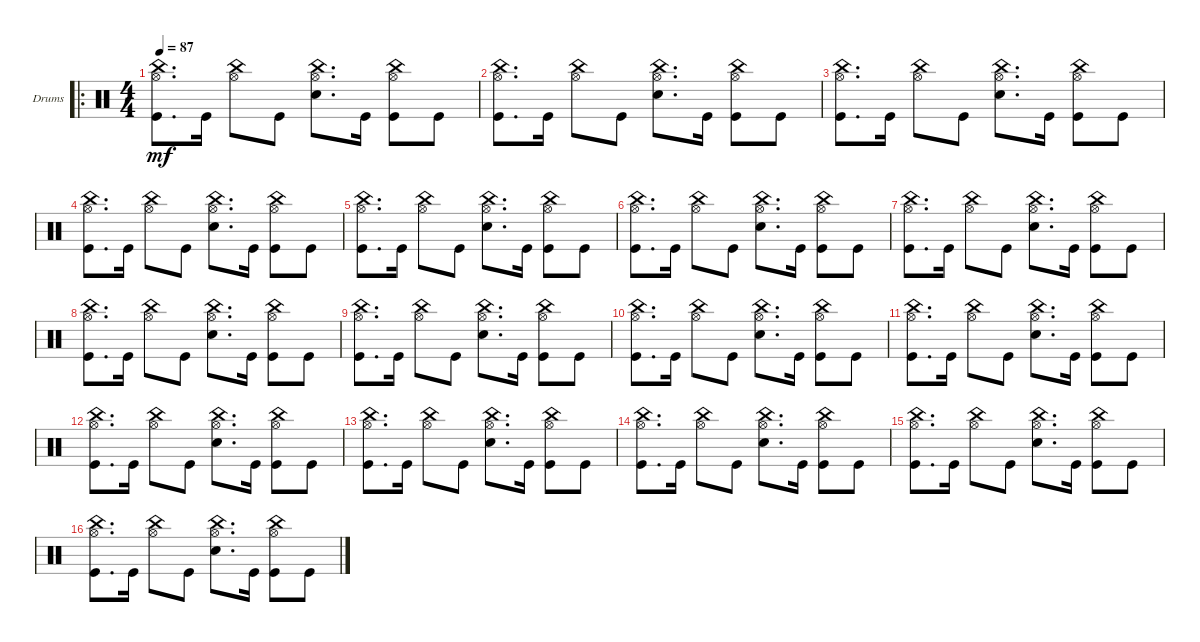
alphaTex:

\defaultSystemsLayout 4
\bracketExtendMode groupsimilarinstruments
\firstSystemTrackNameOrientation horizontal
\otherSystemsTrackNameOrientation horizontal
\track ("Drumkit" "Drums") {instrument percussion}
\staff {score}
\articulation defaults
\ro
\ts (4 4)
\tempo 87
\clef neutral
\scale
0.5
\ks c
("Kick (hit)" "China (hit)" "Hi-Hat (open)").8{d dy mf} "Kick (hit)".16 ("China (hit)" "Hi-Hat (open)").8 "Kick (hit)".8 ("Snare (hit) 2" "China (hit)" "Hi-Hat (open)").8{d} "Kick (hit)".16 ("Kick (hit)" "China (hit)" "Hi-Hat (open)").8 "Kick (hit)".8 |
\scale
0.25 ("Kick (hit)" "China (hit)" "Hi-Hat (open)").8{d} "Kick (hit)".16 ("China (hit)" "Hi-Hat (open)").8 "Kick (hit)".8 ("Snare (hit) 2" "China (hit)" "Hi-Hat (open)").8{d} "Kick (hit)".16 ("Kick (hit)" "China (hit)" "Hi-Hat (open)").8 "Kick (hit)".8 |
\scale
0.25 ("Kick (hit)" "China (hit)" "Hi-Hat (open)").8{d} "Kick (hit)".16 ("China (hit)" "Hi-Hat (open)").8 "Kick (hit)".8 ("Snare (hit) 2" "China (hit)" "Hi-Hat (open)").8{d} "Kick (hit)".16 ("Kick (hit)" "China (hit)" "Hi-Hat (open)").8 "Kick (hit)".8 |
("Kick (hit)" "China (hit)" "Hi-Hat (open)").8{d} "Kick (hit)".16 ("China (hit)" "Hi-Hat (open)").8 "Kick (hit)".8 ("Snare (hit) 2" "China (hit)" "Hi-Hat (open)").8{d} "Kick (hit)".16 ("Kick (hit)" "China (hit)" "Hi-Hat (open)").8 "Kick (hit)".8 |
("Kick (hit)" "China (hit)" "Hi-Hat (open)").8{d} "Kick (hit)".16 ("China (hit)" "Hi-Hat (open)").8 "Kick (hit)".8 ("Snare (hit) 2" "China (hit)" "Hi-Hat (open)").8{d} "Kick (hit)".16 ("Kick (hit)" "China (hit)" "Hi-Hat (open)").8 "Kick (hit)".8 |
("Kick (hit)" "China (hit)" "Hi-Hat (open)").8{d} "Kick (hit)".16 ("China (hit)" "Hi-Hat (open)").8 "Kick (hit)".8 ("Snare (hit) 2" "China (hit)" "Hi-Hat (open)").8{d} "Kick (hit)".16 ("Kick (hit)" "China (hit)" "Hi-Hat (open)").8 "Kick (hit)".8 |
("Kick (hit)" "China (hit)" "Hi-Hat (open)").8{d} "Kick (hit)".16 ("China (hit)" "Hi-Hat (open)").8 "Kick (hit)".8 ("Snare (hit) 2" "China (hit)" "Hi-Hat (open)").8{d} "Kick (hit)".16 ("Kick (hit)" "China (hit)" "Hi-Hat (open)").8 "Kick (hit)".8 |
("Kick (hit)" "China (hit)" "Hi-Hat (open)").8{d} "Kick (hit)".16 ("China (hit)" "Hi-Hat (open)").8 "Kick (hit)".8 ("Snare (hit) 2" "China (hit)" "Hi-Hat (open)").8{d} "Kick (hit)".16 ("Kick (hit)" "China (hit)" "Hi-Hat (open)").8 "Kick (hit)".8 |
("Kick (hit)" "China (hit)" "Hi-Hat (open)").8{d} "Kick (hit)".16 ("China (hit)" "Hi-Hat (open)").8 "Kick (hit)".8 ("Snare (hit) 2" "China (hit)" "Hi-Hat (open)").8{d} "Kick (hit)".16 ("Kick (hit)" "China (hit)" "Hi-Hat (open)").8 "Kick (hit)".8 |
("Kick (hit)" "China (hit)" "Hi-Hat (open)").8{d} "Kick (hit)".16 ("China (hit)" "Hi-Hat (open)").8 "Kick (hit)".8 ("Snare (hit) 2" "China (hit)" "Hi-Hat (open)").8{d} "Kick (hit)".16 ("Kick (hit)" "China (hit)" "Hi-Hat (open)").8 "Kick (hit)".8 |
("Kick (hit)" "China (hit)" "Hi-Hat (open)").8{d} "Kick (hit)".16 ("China (hit)" "Hi-Hat (open)").8 "Kick (hit)".8 ("Snare (hit) 2" "China (hit)" "Hi-Hat (open)").8{d} "Kick (hit)".16 ("Kick (hit)" "China (hit)" "Hi-Hat (open)").8 "Kick (hit)".8 |
("Kick (hit)" "China (hit)" "Hi-Hat (open)").8{d} "Kick (hit)".16 ("China (hit)" "Hi-Hat (open)").8 "Kick (hit)".8 ("Snare (hit) 2" "China (hit)" "Hi-Hat (open)").8{d} "Kick (hit)".16 ("Kick (hit)" "China (hit)" "Hi-Hat (open)").8 "Kick (hit)".8 |
("Kick (hit)" "China (hit)" "Hi-Hat (open)").8{d} "Kick (hit)".16 ("China (hit)" "Hi-Hat (open)").8 "Kick (hit)".8 ("Snare (hit) 2" "China (hit)" "Hi-Hat (open)").8{d} "Kick (hit)".16 ("Kick (hit)" "China (hit)" "Hi-Hat (open)").8 "Kick (hit)".8 |
("Kick (hit)" "China (hit)" "Hi-Hat (open)").8{d} "Kick (hit)".16 ("China (hit)" "Hi-Hat (open)").8 "Kick (hit)".8 ("Snare (hit) 2" "China (hit)" "Hi-Hat (open)").8{d} "Kick (hit)".16 ("Kick (hit)" "China (hit)" "Hi-Hat (open)").8 "Kick (hit)".8 |
("Kick (hit)" "China (hit)" "Hi-Hat (open)").8{d} "Kick (hit)".16 ("China (hit)" "Hi-Hat (open)").8 "Kick (hit)".8 ("Snare (hit) 2" "China (hit)" "Hi-Hat (open)").8{d} "Kick (hit)".16 ("Kick (hit)" "China (hit)" "Hi-Hat (open)").8 "Kick (hit)".8 |
("Kick (hit)" "China (hit)" "Hi-Hat (open)").8{d} "Kick (hit)".16 ("China (hit)" "Hi-Hat (open)").8 "Kick (hit)".8 ("Snare (hit) 2" "China (hit)" "Hi-Hat (open)").8{d} "Kick (hit)".16 ("Kick (hit)" "China (hit)" "Hi-Hat (open)").8 "Kick (hit)".8
